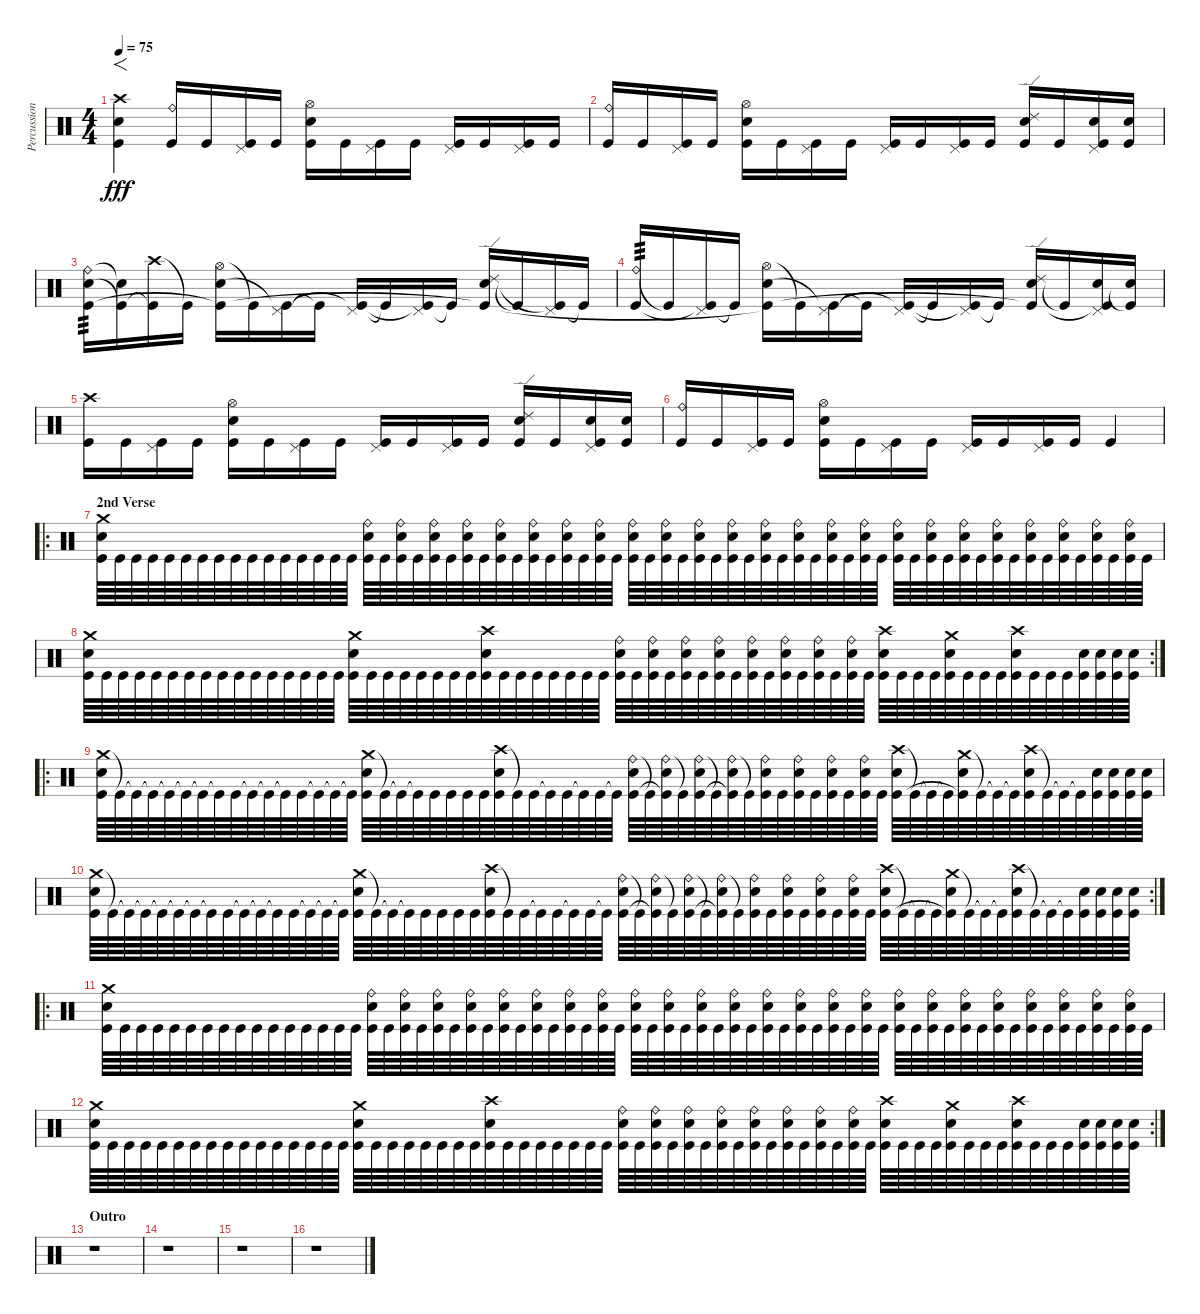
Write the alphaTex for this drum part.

\track ("Percussion" "Percussion") {instrument percussion}
\staff {score}
\articulation defaults
\ts (4 4)
\tempo 75
\clef neutral
\ks c
("Crash high (hit)" "Snare (hit) 2"{tr (38 32)} "Kick (hit)").4{f dy fff} ("Ride (bell)" "Kick (hit)").16 "Kick (hit)".16 ("Pedal Hi-Hat (hit)" "Kick (hit)").16 "Kick (hit)".16 ("Hi-Hat (open)" "Snare (hit) 2" "Kick (hit)").16 "Kick (hit)".16 ("Pedal Hi-Hat (hit)" "Kick (hit)").16 "Kick (hit)".16 ("Pedal Hi-Hat (hit)" "Kick (hit)").16 "Kick (hit)".16 ("Pedal Hi-Hat (hit)" "Kick (hit)").16 "Kick (hit)".16 |
("Ride (bell)" "Kick (hit)").16 "Kick (hit)".16 ("Pedal Hi-Hat (hit)" "Kick (hit)").16 "Kick (hit)".16 ("Hi-Hat (open)" "Snare (hit) 2" "Kick (hit)").16 "Kick (hit)".16 ("Pedal Hi-Hat (hit)" "Kick (hit)").16 "Kick (hit)".16 ("Pedal Hi-Hat (hit)" "Kick (hit)").16 "Kick (hit)".16 ("Pedal Hi-Hat (hit)" "Kick (hit)").16 "Kick (hit)".16 ("Ride (edge) 2" "Snare (hit) 2" "Kick (hit)").16 "Kick (hit)".16 ("Pedal Hi-Hat (hit)" "Snare (hit) 2" "Kick (hit)").16 ("Snare (hit) 2" "Kick (hit)").16 |
("Ride (bell)" "Snare (hit) 2" "Kick (hit)").16{tp 3} ("Snare (hit)"{t} "Kick (hit)"{t}).16 ("Crash high (hit)" "Kick (hit)"{t}).16 "Kick (hit)"{t}.16 ("Hi-Hat (open)" "Snare (hit) 2" "Kick (hit)"{t}).16 "Kick (hit)"{t}.16 ("Pedal Hi-Hat (hit)" "Kick (hit)"{t}).16 "Kick (hit)"{t}.16 ("Pedal Hi-Hat (hit)" "Kick (hit)"{t}).16 "Kick (hit)"{t}.16 ("Pedal Hi-Hat (hit)" "Kick (hit)"{t}).16 "Kick (hit)"{t}.16 ("Ride (edge) 2" "Snare (hit) 2" "Kick (hit)"{t}).16 "Kick (hit)"{t}.16 ("Pedal Hi-Hat (hit)" "Kick (hit)"{t}).16 "Kick (hit)"{t}.16 |
("Ride (bell)" "Kick (hit)").16{tp 3} "Kick (hit)"{t}.16 ("Pedal Hi-Hat (hit)" "Kick (hit)"{t}).16 "Kick (hit)"{t}.16 ("Hi-Hat (open)" "Snare (hit) 2" "Kick (hit)"{t}).16 "Kick (hit)"{t}.16 ("Pedal Hi-Hat (hit)" "Kick (hit)"{t}).16 "Kick (hit)"{t}.16 ("Pedal Hi-Hat (hit)" "Kick (hit)"{t}).16 "Kick (hit)"{t}.16 ("Pedal Hi-Hat (hit)" "Kick (hit)"{t}).16 "Kick (hit)"{t}.16 ("Ride (edge) 2" "Snare (hit) 2" "Kick (hit)"{t}).16 "Kick (hit)"{t}.16 ("Pedal Hi-Hat (hit)" "Snare (hit) 2" "Kick (hit)"{t}).16 ("Snare (hit) 2" "Kick (hit)"{t}).16 |
("Crash high (hit)" "Kick (hit)").16 "Kick (hit)".16 ("Pedal Hi-Hat (hit)" "Kick (hit)").16 "Kick (hit)".16 ("Hi-Hat (open)" "Snare (hit) 2" "Kick (hit)").16 "Kick (hit)".16 ("Pedal Hi-Hat (hit)" "Kick (hit)").16 "Kick (hit)".16 ("Pedal Hi-Hat (hit)" "Kick (hit)").16 "Kick (hit)".16 ("Pedal Hi-Hat (hit)" "Kick (hit)").16 "Kick (hit)".16 ("Ride (edge) 2" "Snare (hit) 2" "Kick (hit)").16 "Kick (hit)".16 ("Pedal Hi-Hat (hit)" "Snare (hit) 2" "Kick (hit)").16 ("Snare (hit) 2" "Kick (hit)").16 |
("Ride (bell)" "Kick (hit)").16 "Kick (hit)".16 ("Pedal Hi-Hat (hit)" "Kick (hit)").16 "Kick (hit)".16 ("Hi-Hat (open)" "Snare (hit) 2" "Kick (hit)").16 "Kick (hit)".16 ("Pedal Hi-Hat (hit)" "Kick (hit)").16 "Kick (hit)".16 ("Pedal Hi-Hat (hit)" "Kick (hit)").16 "Kick (hit)".16 ("Pedal Hi-Hat (hit)" "Kick (hit)").16 "Kick (hit)".16 "Kick (hit)"{tr (35 32)}.4 |
\ro
\section ("" "2nd Verse")
("Crash medium (hit)" "Snare (hit) 2" "Kick (hit)").64 "Kick (hit)".64 "Kick (hit)".64 "Kick (hit)".64 "Kick (hit)".64 "Kick (hit)".64 "Kick (hit)".64 "Kick (hit)".64 "Kick (hit)".64 "Kick (hit)".64 "Kick (hit)".64 "Kick (hit)".64 "Kick (hit)".64 "Kick (hit)".64 "Kick (hit)".64 "Kick (hit)".64 ("Ride (bell)" "Snare (hit) 2" "Kick (hit)").64 "Kick (hit)".64 ("Ride (bell)" "Snare (hit) 2" "Kick (hit)").64 "Kick (hit)".64 ("Ride (bell)" "Snare (hit) 2" "Kick (hit)").64 "Kick (hit)".64 ("Ride (bell)" "Snare (hit) 2" "Kick (hit)").64 "Kick (hit)".64 ("Ride (bell)" "Snare (hit) 2" "Kick (hit)").64 "Kick (hit)".64 ("Ride (bell)" "Snare (hit) 2" "Kick (hit)").64 "Kick (hit)".64 ("Ride (bell)" "Snare (hit) 2" "Kick (hit)").64 "Kick (hit)".64 ("Ride (bell)" "Snare (hit) 2" "Kick (hit)").64 "Kick (hit)".64 ("Ride (bell)" "Snare (hit) 2" "Kick (hit)").64 "Kick (hit)".64 ("Ride (bell)" "Snare (hit) 2" "Kick (hit)").64 "Kick (hit)".64 ("Ride (bell)" "Snare (hit) 2" "Kick (hit)").64 "Kick (hit)".64 ("Ride (bell)" "Snare (hit) 2" "Kick (hit)").64 "Kick (hit)".64 ("Ride (bell)" "Snare (hit) 2" "Kick (hit)").64 "Kick (hit)".64 ("Ride (bell)" "Snare (hit) 2" "Kick (hit)").64 "Kick (hit)".64 ("Ride (bell)" "Snare (hit) 2" "Kick (hit)").64 "Kick (hit)".64 ("Ride (bell)" "Snare (hit) 2" "Kick (hit)").64 "Kick (hit)".64 ("Ride (bell)" "Snare (hit) 2" "Kick (hit)").64 "Kick (hit)".64 ("Ride (bell)" "Snare (hit) 2" "Kick (hit)").64 "Kick (hit)".64 ("Ride (bell)" "Snare (hit) 2" "Kick (hit)").64 "Kick (hit)".64 ("Ride (bell)" "Snare (hit) 2" "Kick (hit)").64 "Kick (hit)".64 ("Ride (bell)" "Snare (hit) 2" "Kick (hit)").64 "Kick (hit)".64 ("Ride (bell)" "Snare (hit) 2" "Kick (hit)").64 "Kick (hit)".64 ("Ride (bell)" "Snare (hit) 2" "Kick (hit)").64 "Kick (hit)".64 ("Ride (bell)" "Snare (hit) 2" "Kick (hit)").64 "Kick (hit)".64 |
\rc 2
("Crash medium (hit)" "Snare (hit) 2" "Kick (hit)").64 "Kick (hit)".64 "Kick (hit)".64 "Kick (hit)".64 "Kick (hit)".64 "Kick (hit)".64 "Kick (hit)".64 "Kick (hit)".64 "Kick (hit)".64 "Kick (hit)".64 "Kick (hit)".64 "Kick (hit)".64 "Kick (hit)".64 "Kick (hit)".64 "Kick (hit)".64 "Kick (hit)".64 ("Crash medium (hit)" "Snare (hit) 2" "Kick (hit)").64 "Kick (hit)".64 "Kick (hit)".64 "Kick (hit)".64 "Kick (hit)".64 "Kick (hit)".64 "Kick (hit)".64 "Kick (hit)".64 ("Crash high (hit)" "Snare (hit) 2" "Kick (hit)").64 "Kick (hit)".64 "Kick (hit)".64 "Kick (hit)".64 "Kick (hit)".64 "Kick (hit)".64 "Kick (hit)".64 "Kick (hit)".64 ("Ride (bell)" "Snare (hit) 2" "Kick (hit)").64 "Kick (hit)".64 ("Ride (bell)" "Snare (hit) 2" "Kick (hit)").64 "Kick (hit)".64 ("Ride (bell)" "Snare (hit) 2" "Kick (hit)").64 "Kick (hit)".64 ("Ride (bell)" "Snare (hit) 2" "Kick (hit)").64 "Kick (hit)".64 ("Ride (bell)" "Snare (hit) 2" "Kick (hit)").64 "Kick (hit)".64 ("Ride (bell)" "Snare (hit) 2" "Kick (hit)").64 "Kick (hit)".64 ("Ride (bell)" "Snare (hit) 2" "Kick (hit)").64 "Kick (hit)".64 ("Ride (bell)" "Snare (hit) 2" "Kick (hit)").64 "Kick (hit)".64 ("Crash high (hit)" "Snare (hit) 2" "Kick (hit)").64 "Kick (hit)".64 "Kick (hit)".64 "Kick (hit)".64 ("Crash medium (hit)" "Snare (hit) 2" "Kick (hit)").64 "Kick (hit)".64 "Kick (hit)".64 "Kick (hit)".64 ("Crash high (hit)" "Snare (hit) 2" "Kick (hit)").64 "Kick (hit)".64 "Kick (hit)".64 "Kick (hit)".64 ("Snare (hit) 2" "Kick (hit)").64 ("Snare (hit) 2" "Kick (hit)").64 ("Snare (hit) 2" "Kick (hit)").64 ("Snare (hit) 2" "Kick (hit)").64 |
\ro
("Crash medium (hit)" "Snare (hit) 2" "Kick (hit)").64 "Kick (hit)"{t}.64 "Kick (hit)"{t}.64 "Kick (hit)"{t}.64 "Kick (hit)"{t}.64 "Kick (hit)"{t}.64 "Kick (hit)"{t}.64 "Kick (hit)"{t}.64 "Kick (hit)".64 "Kick (hit)"{t}.64 "Kick (hit)"{t}.64 "Kick (hit)"{t}.64 "Kick (hit)".64 "Kick (hit)"{t}.64 "Kick (hit)"{t}.64 "Kick (hit)"{t}.64 ("Crash medium (hit)" "Snare (hit) 2" "Kick (hit)").64 "Kick (hit)"{t}.64 "Kick (hit)"{t}.64 "Kick (hit)"{t}.64 "Kick (hit)".64 "Kick (hit)".64 "Kick (hit)".64 "Kick (hit)".64 ("Crash high (hit)" "Snare (hit) 2" "Kick (hit)").64 "Kick (hit)"{t}.64 "Kick (hit)".64 "Kick (hit)"{t}.64 "Kick (hit)".64 "Kick (hit)"{t}.64 "Kick (hit)".64 "Kick (hit)"{t}.64 ("Ride (bell)" "Snare (hit) 2" "Kick (hit)").64 "Kick (hit)"{t}.64 ("Ride (bell)" "Snare (hit) 2" "Kick (hit)"{t}).64 "Kick (hit)"{t}.64 ("Ride (bell)" "Snare (hit) 2" "Kick (hit)").64 "Kick (hit)"{t}.64 ("Ride (bell)" "Snare (hit) 2" "Kick (hit)"{t}).64 "Kick (hit)"{t}.64 ("Ride (bell)" "Snare (hit) 2" "Kick (hit)").64 "Kick (hit)".64 ("Ride (bell)" "Snare (hit) 2" "Kick (hit)").64 "Kick (hit)".64 ("Ride (bell)" "Snare (hit) 2" "Kick (hit)").64 "Kick (hit)".64 ("Ride (bell)" "Snare (hit) 2" "Kick (hit)").64 "Kick (hit)".64 ("Crash high (hit)" "Snare (hit) 2" "Kick (hit)").64 "Kick (hit)"{t}.64 "Kick (hit)"{t}.64 "Kick (hit)"{t}.64 ("Crash medium (hit)" "Snare (hit) 2" "Kick (hit)"{t}).64 "Kick (hit)"{t}.64 "Kick (hit)"{t}.64 "Kick (hit)"{t}.64 ("Crash high (hit)" "Snare (hit) 2" "Kick (hit)").64 "Kick (hit)"{t}.64 "Kick (hit)"{t}.64 "Kick (hit)"{t}.64 ("Snare (hit) 2" "Kick (hit)").64 ("Snare (hit) 2" "Kick (hit)").64 ("Snare (hit) 2" "Kick (hit)").64 ("Snare (hit) 2" "Kick (hit)").64 |
\rc 2
("Crash medium (hit)" "Snare (hit) 2" "Kick (hit)").64 "Kick (hit)"{t}.64 "Kick (hit)"{t}.64 "Kick (hit)"{t}.64 "Kick (hit)"{t}.64 "Kick (hit)"{t}.64 "Kick (hit)"{t}.64 "Kick (hit)"{t}.64 "Kick (hit)".64 "Kick (hit)"{t}.64 "Kick (hit)"{t}.64 "Kick (hit)"{t}.64 "Kick (hit)".64 "Kick (hit)"{t}.64 "Kick (hit)"{t}.64 "Kick (hit)"{t}.64 ("Crash medium (hit)" "Snare (hit) 2" "Kick (hit)").64 "Kick (hit)"{t}.64 "Kick (hit)"{t}.64 "Kick (hit)"{t}.64 "Kick (hit)".64 "Kick (hit)".64 "Kick (hit)".64 "Kick (hit)".64 ("Crash high (hit)" "Snare (hit) 2" "Kick (hit)").64 "Kick (hit)"{t}.64 "Kick (hit)".64 "Kick (hit)"{t}.64 "Kick (hit)".64 "Kick (hit)"{t}.64 "Kick (hit)".64 "Kick (hit)"{t}.64 ("Ride (bell)" "Snare (hit) 2" "Kick (hit)").64 "Kick (hit)"{t}.64 ("Ride (bell)" "Snare (hit) 2" "Kick (hit)"{t}).64 "Kick (hit)"{t}.64 ("Ride (bell)" "Snare (hit) 2" "Kick (hit)").64 "Kick (hit)"{t}.64 ("Ride (bell)" "Snare (hit) 2" "Kick (hit)"{t}).64 "Kick (hit)"{t}.64 ("Ride (bell)" "Snare (hit) 2" "Kick (hit)").64 "Kick (hit)".64 ("Ride (bell)" "Snare (hit) 2" "Kick (hit)").64 "Kick (hit)".64 ("Ride (bell)" "Snare (hit) 2" "Kick (hit)").64 "Kick (hit)".64 ("Ride (bell)" "Snare (hit) 2" "Kick (hit)").64 "Kick (hit)".64 ("Crash high (hit)" "Snare (hit) 2" "Kick (hit)").64 "Kick (hit)"{t}.64 "Kick (hit)"{t}.64 "Kick (hit)"{t}.64 ("Crash medium (hit)" "Snare (hit) 2" "Kick (hit)"{t}).64 "Kick (hit)"{t}.64 "Kick (hit)"{t}.64 "Kick (hit)"{t}.64 ("Crash high (hit)" "Snare (hit) 2" "Kick (hit)").64 "Kick (hit)"{t}.64 "Kick (hit)"{t}.64 "Kick (hit)"{t}.64 ("Snare (hit) 2" "Kick (hit)").64 ("Snare (hit) 2" "Kick (hit)").64 ("Snare (hit) 2" "Kick (hit)").64 ("Snare (hit) 2" "Kick (hit)").64 |
\ro
("Crash medium (hit)" "Snare (hit) 2" "Kick (hit)").64 "Kick (hit)".64 "Kick (hit)".64 "Kick (hit)".64 "Kick (hit)".64 "Kick (hit)".64 "Kick (hit)".64 "Kick (hit)".64 "Kick (hit)".64 "Kick (hit)".64 "Kick (hit)".64 "Kick (hit)".64 "Kick (hit)".64 "Kick (hit)".64 "Kick (hit)".64 "Kick (hit)".64 ("Ride (bell)" "Snare (hit) 2" "Kick (hit)").64 "Kick (hit)".64 ("Ride (bell)" "Snare (hit) 2" "Kick (hit)").64 "Kick (hit)".64 ("Ride (bell)" "Snare (hit) 2" "Kick (hit)").64 "Kick (hit)".64 ("Ride (bell)" "Snare (hit) 2" "Kick (hit)").64 "Kick (hit)".64 ("Ride (bell)" "Snare (hit) 2" "Kick (hit)").64 "Kick (hit)".64 ("Ride (bell)" "Snare (hit) 2" "Kick (hit)").64 "Kick (hit)".64 ("Ride (bell)" "Snare (hit) 2" "Kick (hit)").64 "Kick (hit)".64 ("Ride (bell)" "Snare (hit) 2" "Kick (hit)").64 "Kick (hit)".64 ("Ride (bell)" "Snare (hit) 2" "Kick (hit)").64 "Kick (hit)".64 ("Ride (bell)" "Snare (hit) 2" "Kick (hit)").64 "Kick (hit)".64 ("Ride (bell)" "Snare (hit) 2" "Kick (hit)").64 "Kick (hit)".64 ("Ride (bell)" "Snare (hit) 2" "Kick (hit)").64 "Kick (hit)".64 ("Ride (bell)" "Snare (hit) 2" "Kick (hit)").64 "Kick (hit)".64 ("Ride (bell)" "Snare (hit) 2" "Kick (hit)").64 "Kick (hit)".64 ("Ride (bell)" "Snare (hit) 2" "Kick (hit)").64 "Kick (hit)".64 ("Ride (bell)" "Snare (hit) 2" "Kick (hit)").64 "Kick (hit)".64 ("Ride (bell)" "Snare (hit) 2" "Kick (hit)").64 "Kick (hit)".64 ("Ride (bell)" "Snare (hit) 2" "Kick (hit)").64 "Kick (hit)".64 ("Ride (bell)" "Snare (hit) 2" "Kick (hit)").64 "Kick (hit)".64 ("Ride (bell)" "Snare (hit) 2" "Kick (hit)").64 "Kick (hit)".64 ("Ride (bell)" "Snare (hit) 2" "Kick (hit)").64 "Kick (hit)".64 ("Ride (bell)" "Snare (hit) 2" "Kick (hit)").64 "Kick (hit)".64 ("Ride (bell)" "Snare (hit) 2" "Kick (hit)").64 "Kick (hit)".64 ("Ride (bell)" "Snare (hit) 2" "Kick (hit)").64 "Kick (hit)".64 |
\rc 2
("Crash medium (hit)" "Snare (hit) 2" "Kick (hit)").64 "Kick (hit)".64 "Kick (hit)".64 "Kick (hit)".64 "Kick (hit)".64 "Kick (hit)".64 "Kick (hit)".64 "Kick (hit)".64 "Kick (hit)".64 "Kick (hit)".64 "Kick (hit)".64 "Kick (hit)".64 "Kick (hit)".64 "Kick (hit)".64 "Kick (hit)".64 "Kick (hit)".64 ("Crash medium (hit)" "Snare (hit) 2" "Kick (hit)").64 "Kick (hit)".64 "Kick (hit)".64 "Kick (hit)".64 "Kick (hit)".64 "Kick (hit)".64 "Kick (hit)".64 "Kick (hit)".64 ("Crash high (hit)" "Snare (hit) 2" "Kick (hit)").64 "Kick (hit)".64 "Kick (hit)".64 "Kick (hit)".64 "Kick (hit)".64 "Kick (hit)".64 "Kick (hit)".64 "Kick (hit)".64 ("Ride (bell)" "Snare (hit) 2" "Kick (hit)").64 "Kick (hit)".64 ("Ride (bell)" "Snare (hit) 2" "Kick (hit)").64 "Kick (hit)".64 ("Ride (bell)" "Snare (hit) 2" "Kick (hit)").64 "Kick (hit)".64 ("Ride (bell)" "Snare (hit) 2" "Kick (hit)").64 "Kick (hit)".64 ("Ride (bell)" "Snare (hit) 2" "Kick (hit)").64 "Kick (hit)".64 ("Ride (bell)" "Snare (hit) 2" "Kick (hit)").64 "Kick (hit)".64 ("Ride (bell)" "Snare (hit) 2" "Kick (hit)").64 "Kick (hit)".64 ("Ride (bell)" "Snare (hit) 2" "Kick (hit)").64 "Kick (hit)".64 ("Crash high (hit)" "Snare (hit) 2" "Kick (hit)").64 "Kick (hit)".64 "Kick (hit)".64 "Kick (hit)".64 ("Crash medium (hit)" "Snare (hit) 2" "Kick (hit)").64 "Kick (hit)".64 "Kick (hit)".64 "Kick (hit)".64 ("Crash high (hit)" "Snare (hit) 2" "Kick (hit)").64 "Kick (hit)".64 "Kick (hit)".64 "Kick (hit)".64 ("Snare (hit) 2" "Kick (hit)").64 ("Snare (hit) 2" "Kick (hit)").64 ("Snare (hit) 2" "Kick (hit)").64 ("Snare (hit) 2" "Kick (hit)").64 |
\section ("" "Outro")
r.1 |
r.1 |
r.1 |
r.1
